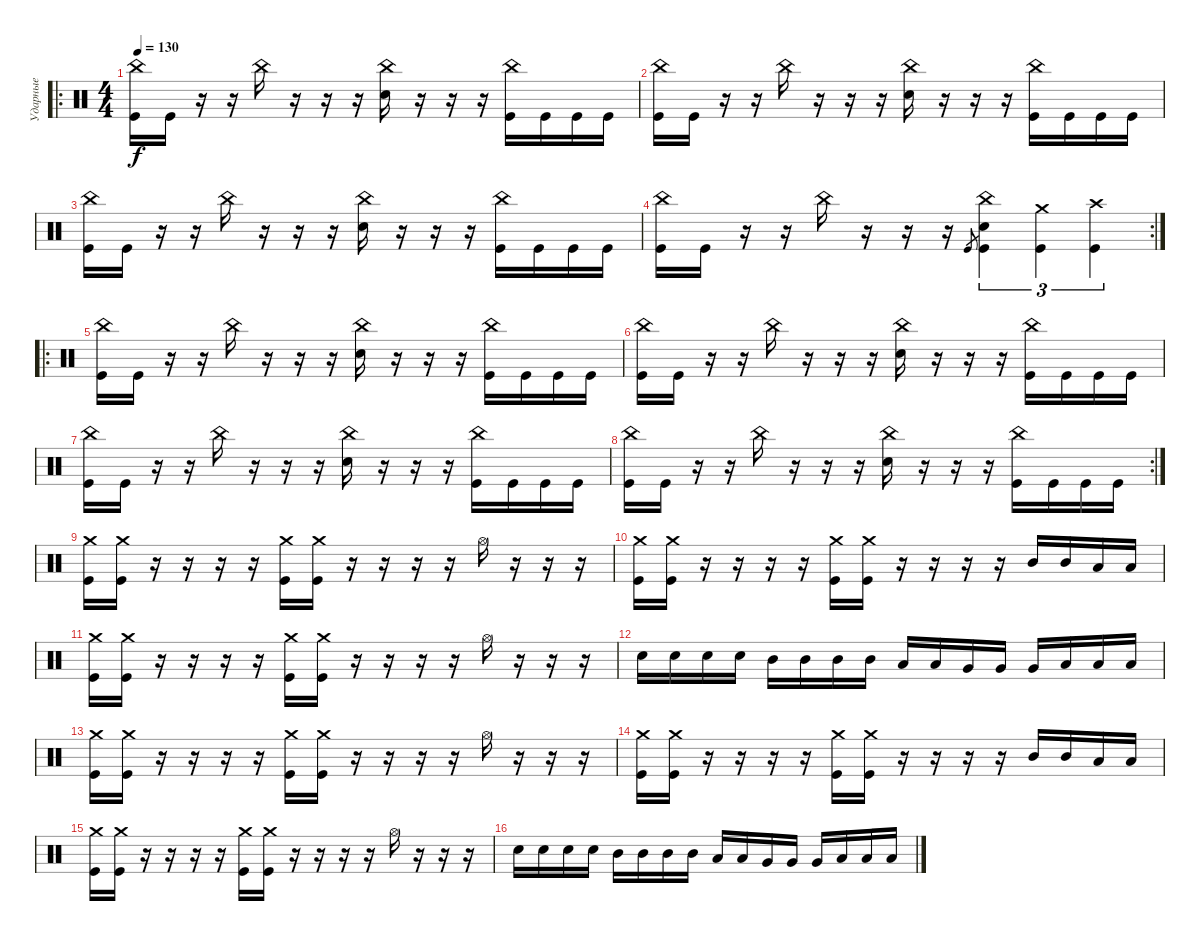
\track ("Ударные" "Ударные") {instrument percussion}
\staff {score}
\articulation defaults
\ro
\ts (4 4)
\tempo 130
\clef neutral
\ks c
("China (hit)" "Kick (hit)").16{dy f} "Kick (hit)".16 r.16 r.16 "China (hit)".16 r.16 r.16 r.16 ("China (hit)" "Snare (hit) 2").16 r.16 r.16 r.16 ("China (hit)" "Kick (hit)").16 "Kick (hit)".16 "Kick (hit)".16 "Kick (hit)".16 |
("China (hit)" "Kick (hit)").16 "Kick (hit)".16 r.16 r.16 "China (hit)".16 r.16 r.16 r.16 ("China (hit)" "Snare (hit) 2").16 r.16 r.16 r.16 ("China (hit)" "Kick (hit)").16 "Kick (hit)".16 "Kick (hit)".16 "Kick (hit)".16 |
("China (hit)" "Kick (hit)").16 "Kick (hit)".16 r.16 r.16 "China (hit)".16 r.16 r.16 r.16 ("China (hit)" "Snare (hit) 2").16 r.16 r.16 r.16 ("China (hit)" "Kick (hit)").16 "Kick (hit)".16 "Kick (hit)".16 "Kick (hit)".16 |
\rc 2
("China (hit)" "Kick (hit)").16 "Kick (hit)".16 r.16 r.16 "China (hit)".16 r.16 r.16 r.16 "Kick (hit)".8{gr} ("China (hit)" "Snare (hit) 2" "Kick (hit)").4{tu (3 2)} ("Crash medium (hit)" "Kick (hit)").4{tu (3 2)} ("Crash high (hit)" "Kick (hit)").4{tu (3 2)} |
\ro
("China (hit)" "Kick (hit)").16 "Kick (hit)".16 r.16 r.16 "China (hit)".16 r.16 r.16 r.16 ("China (hit)" "Snare (hit) 2").16 r.16 r.16 r.16 ("China (hit)" "Kick (hit)").16 "Kick (hit)".16 "Kick (hit)".16 "Kick (hit)".16 |
("China (hit)" "Kick (hit)").16 "Kick (hit)".16 r.16 r.16 "China (hit)".16 r.16 r.16 r.16 ("China (hit)" "Snare (hit) 2").16 r.16 r.16 r.16 ("China (hit)" "Kick (hit)").16 "Kick (hit)".16 "Kick (hit)".16 "Kick (hit)".16 |
("China (hit)" "Kick (hit)").16 "Kick (hit)".16 r.16 r.16 "China (hit)".16 r.16 r.16 r.16 ("China (hit)" "Snare (hit) 2").16 r.16 r.16 r.16 ("China (hit)" "Kick (hit)").16 "Kick (hit)".16 "Kick (hit)".16 "Kick (hit)".16 |
\rc 2
("China (hit)" "Kick (hit)").16 "Kick (hit)".16 r.16 r.16 "China (hit)".16 r.16 r.16 r.16 ("China (hit)" "Snare (hit) 2").16 r.16 r.16 r.16 ("China (hit)" "Kick (hit)").16 "Kick (hit)".16 "Kick (hit)".16 "Kick (hit)".16 |
("Crash medium (hit)" "Kick (hit)").16 ("Crash medium (hit)" "Kick (hit)").16 r.16 r.16 r.16 r.16 ("Crash medium (hit)" "Kick (hit)").16 ("Crash medium (hit)" "Kick (hit)").16 r.16 r.16 r.16 r.16 "Hi-Hat (open)".16 r.16 r.16 r.16 |
("Crash medium (hit)" "Kick (hit)").16 ("Crash medium (hit)" "Kick (hit)").16 r.16 r.16 r.16 r.16 ("Crash medium (hit)" "Kick (hit)").16 ("Crash medium (hit)" "Kick (hit)").16 r.16 r.16 r.16 r.16 "Mid Tom (hit)".16 "Mid Tom (hit)".16 "Low Tom (hit)".16 "Low Tom (hit)".16 |
("Crash medium (hit)" "Kick (hit)").16 ("Crash medium (hit)" "Kick (hit)").16 r.16 r.16 r.16 r.16 ("Crash medium (hit)" "Kick (hit)").16 ("Crash medium (hit)" "Kick (hit)").16 r.16 r.16 r.16 r.16 "Hi-Hat (open)".16 r.16 r.16 r.16 |
"Snare (hit) 2".16 "Snare (hit) 2".16 "Snare (hit) 2".16 "Snare (hit) 2".16 "Mid Tom (hit)".16 "Mid Tom (hit)".16 "Mid Tom (hit)".16 "Mid Tom (hit)".16 "Low Tom (hit)".16 "Low Tom (hit)".16 "Very Low Tom (hit)".16 "Very Low Tom (hit)".16 "Very Low Tom (hit)".16 "Low Tom (hit)".16 "Low Tom (hit)".16 "Low Tom (hit)".16 |
("Crash medium (hit)" "Kick (hit)").16 ("Crash medium (hit)" "Kick (hit)").16 r.16 r.16 r.16 r.16 ("Crash medium (hit)" "Kick (hit)").16 ("Crash medium (hit)" "Kick (hit)").16 r.16 r.16 r.16 r.16 "Hi-Hat (open)".16 r.16 r.16 r.16 |
("Crash medium (hit)" "Kick (hit)").16 ("Crash medium (hit)" "Kick (hit)").16 r.16 r.16 r.16 r.16 ("Crash medium (hit)" "Kick (hit)").16 ("Crash medium (hit)" "Kick (hit)").16 r.16 r.16 r.16 r.16 "Mid Tom (hit)".16 "Mid Tom (hit)".16 "Low Tom (hit)".16 "Low Tom (hit)".16 |
("Crash medium (hit)" "Kick (hit)").16 ("Crash medium (hit)" "Kick (hit)").16 r.16 r.16 r.16 r.16 ("Crash medium (hit)" "Kick (hit)").16 ("Crash medium (hit)" "Kick (hit)").16 r.16 r.16 r.16 r.16 "Hi-Hat (open)".16 r.16 r.16 r.16 |
"Snare (hit) 2".16 "Snare (hit) 2".16 "Snare (hit) 2".16 "Snare (hit) 2".16 "Mid Tom (hit)".16 "Mid Tom (hit)".16 "Mid Tom (hit)".16 "Mid Tom (hit)".16 "Low Tom (hit)".16 "Low Tom (hit)".16 "Very Low Tom (hit)".16 "Very Low Tom (hit)".16 "Very Low Tom (hit)".16 "Low Tom (hit)".16 "Low Tom (hit)".16 "Low Tom (hit)".16
